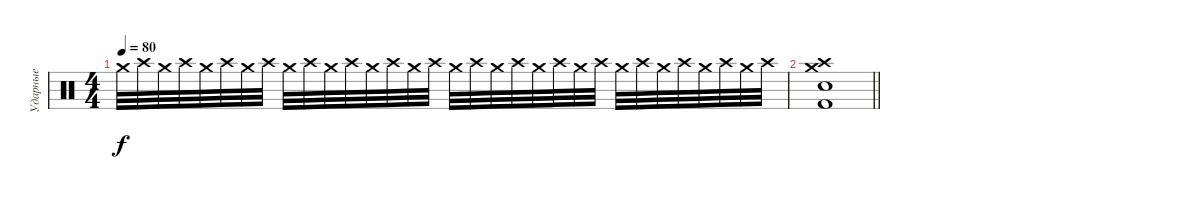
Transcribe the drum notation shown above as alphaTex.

\track ("Ударные" "Ударные") {instrument percussion}
\staff {score}
\articulation defaults
\ts (4 4)
\tempo 80
\clef neutral
\ks c "Crash medium (hit)".32{dy f} "Crash high (hit)".32 "Crash medium (hit)".32 "Crash high (hit)".32 "Crash medium (hit)".32 "Crash high (hit)".32 "Crash medium (hit)".32 "Crash high (hit)".32 "Crash medium (hit)".32 "Crash high (hit)".32 "Crash medium (hit)".32 "Crash high (hit)".32 "Crash medium (hit)".32 "Crash high (hit)".32 "Crash medium (hit)".32 "Crash high (hit)".32 "Crash medium (hit)".32 "Crash high (hit)".32 "Crash medium (hit)".32 "Crash high (hit)".32 "Crash medium (hit)".32 "Crash high (hit)".32 "Crash medium (hit)".32 "Crash high (hit)".32 "Crash medium (hit)".32 "Crash high (hit)".32 "Crash medium (hit)".32 "Crash high (hit)".32 "Crash medium (hit)".32 "Crash high (hit)".32 "Crash medium (hit)".32 "Crash high (hit)".32
|
\barLineRight lightlight
("Crash medium (hit)" "Crash high (hit)" "Kick (hit) 2" "Snare (hit) 2").1
